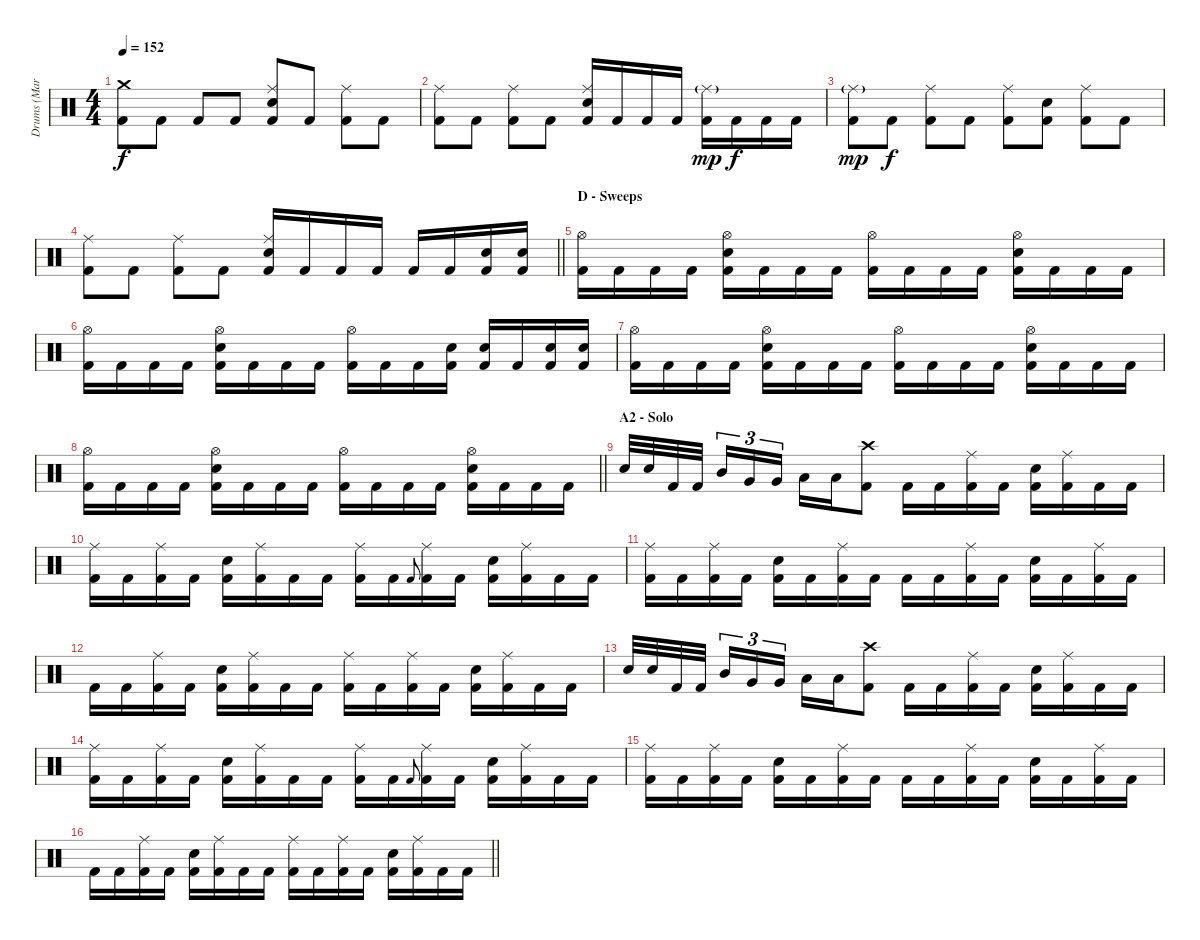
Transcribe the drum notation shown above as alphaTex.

\track ("Drums (Mark Arrington)" "Drums (Mar") {instrument percussion}
\staff {score}
\articulation defaults
\ts (4 4)
\tempo 152
\clef neutral
\ks aminor
("Crash medium (hit)" "Kick (hit) 2").8{dy f} "Kick (hit) 2".8 "Kick (hit) 2".8 "Kick (hit) 2".8 ("Ride (middle)" "Electric Snare (hit)" "Kick (hit) 2").8 "Kick (hit) 2".8 ("Ride (middle)" "Kick (hit) 2").8 "Kick (hit) 2".8 |
("Ride (middle)" "Kick (hit) 2").8 "Kick (hit) 2".8 ("Ride (middle)" "Kick (hit) 2").8 "Kick (hit) 2".8 ("Ride (middle)" "Electric Snare (hit)" "Kick (hit) 2").16 "Kick (hit) 2".16 "Kick (hit) 2".16 "Kick (hit) 2".16 ("Ride (middle)"{g} "Kick (hit) 2").16{dy mp} "Kick (hit) 2".16{dy f} "Kick (hit) 2".16 "Kick (hit) 2".16 |
("Ride (middle)"{g} "Kick (hit) 2").8{dy mp} "Kick (hit) 2".8{dy f} ("Ride (middle)" "Kick (hit) 2").8 "Kick (hit) 2".8 ("Ride (middle)" "Kick (hit) 2").8 ("Electric Snare (hit)" "Kick (hit) 2").8 ("Ride (middle)" "Kick (hit) 2").8 "Kick (hit) 2".8 |
\barLineRight lightlight
("Ride (middle)" "Kick (hit) 2").8 "Kick (hit) 2".8 ("Ride (middle)" "Kick (hit) 2").8 "Kick (hit) 2".8 ("Ride (middle)" "Electric Snare (hit)" "Kick (hit) 2").16 "Kick (hit) 2".16 "Kick (hit) 2".16 "Kick (hit) 2".16 "Kick (hit) 2".16 "Kick (hit) 2".16 ("Electric Snare (hit)" "Kick (hit) 2").16 ("Electric Snare (hit)" "Kick (hit) 2").16 |
\section ("" "D - Sweeps")
("Hi-Hat (open)" "Kick (hit) 2").16 "Kick (hit) 2".16 "Kick (hit) 2".16 "Kick (hit) 2".16 ("Hi-Hat (open)" "Electric Snare (hit)" "Kick (hit) 2").16 "Kick (hit) 2".16 "Kick (hit) 2".16 "Kick (hit) 2".16 ("Hi-Hat (open)" "Kick (hit) 2").16 "Kick (hit) 2".16 "Kick (hit) 2".16 "Kick (hit) 2".16 ("Hi-Hat (open)" "Electric Snare (hit)" "Kick (hit) 2").16 "Kick (hit) 2".16 "Kick (hit) 2".16 "Kick (hit) 2".16 |
("Hi-Hat (open)" "Kick (hit) 2").16 "Kick (hit) 2".16 "Kick (hit) 2".16 "Kick (hit) 2".16 ("Hi-Hat (open)" "Electric Snare (hit)" "Kick (hit) 2").16 "Kick (hit) 2".16 "Kick (hit) 2".16 "Kick (hit) 2".16 ("Hi-Hat (open)" "Kick (hit) 2").16 "Kick (hit) 2".16 "Kick (hit) 2".16 ("Electric Snare (hit)" "Kick (hit) 2").16 ("Electric Snare (hit)" "Kick (hit) 2").16 "Kick (hit) 2".16 ("Electric Snare (hit)" "Kick (hit) 2").16 ("Electric Snare (hit)" "Kick (hit) 2").16 |
("Hi-Hat (open)" "Kick (hit) 2").16 "Kick (hit) 2".16 "Kick (hit) 2".16 "Kick (hit) 2".16 ("Hi-Hat (open)" "Electric Snare (hit)" "Kick (hit) 2").16 "Kick (hit) 2".16 "Kick (hit) 2".16 "Kick (hit) 2".16 ("Hi-Hat (open)" "Kick (hit) 2").16 "Kick (hit) 2".16 "Kick (hit) 2".16 "Kick (hit) 2".16 ("Hi-Hat (open)" "Electric Snare (hit)" "Kick (hit) 2").16 "Kick (hit) 2".16 "Kick (hit) 2".16 "Kick (hit) 2".16 |
\barLineRight lightlight
("Hi-Hat (open)" "Kick (hit) 2").16 "Kick (hit) 2".16 "Kick (hit) 2".16 "Kick (hit) 2".16 ("Hi-Hat (open)" "Electric Snare (hit)" "Kick (hit) 2").16 "Kick (hit) 2".16 "Kick (hit) 2".16 "Kick (hit) 2".16 ("Hi-Hat (open)" "Kick (hit) 2").16 "Kick (hit) 2".16 "Kick (hit) 2".16 "Kick (hit) 2".16 ("Hi-Hat (open)" "Electric Snare (hit)" "Kick (hit) 2").16 "Kick (hit) 2".16 "Kick (hit) 2".16 "Kick (hit) 2".16 |
\section ("" "A2 - Solo")
"Electric Snare (hit)".32 "Electric Snare (hit)".32 "Kick (hit) 2".32 "Kick (hit) 2".32{beam splitsecondary} "Mid Tom (hit)".16{tu (3 2)} "Very Low Tom (hit)".16{tu (3 2)} "Very Low Tom (hit)".16{tu (3 2)} "Low Floor Tom (hit)".16 "Low Floor Tom (hit)".16 ("Crash high (hit)" "Kick (hit) 2").8 "Kick (hit) 2".16 "Kick (hit) 2".16 ("Ride (middle)" "Kick (hit) 2").16 "Kick (hit) 2".16 ("Electric Snare (hit)" "Kick (hit) 2").16 ("Ride (middle)" "Kick (hit) 2").16 "Kick (hit) 2".16 "Kick (hit) 2".16 |
("Ride (middle)" "Kick (hit) 2").16 "Kick (hit) 2".16 ("Ride (middle)" "Kick (hit) 2").16 "Kick (hit) 2".16 ("Electric Snare (hit)" "Kick (hit) 2").16 ("Ride (middle)" "Kick (hit) 2").16 "Kick (hit) 2".16 "Kick (hit) 2".16 ("Ride (middle)" "Kick (hit) 2").16 "Kick (hit) 2".16 "Kick (hit) 2".8{gr onbeat} ("Ride (middle)" "Kick (hit) 2").16 "Kick (hit) 2".16 ("Electric Snare (hit)" "Kick (hit) 2").16 ("Ride (middle)" "Kick (hit) 2").16 "Kick (hit) 2".16 "Kick (hit) 2".16 |
("Ride (middle)" "Kick (hit) 2").16 "Kick (hit) 2".16 ("Ride (middle)" "Kick (hit) 2").16 "Kick (hit) 2".16 ("Electric Snare (hit)" "Kick (hit) 2").16 "Kick (hit) 2".16 ("Ride (middle)" "Kick (hit) 2").16 "Kick (hit) 2".16 "Kick (hit) 2".16 "Kick (hit) 2".16 ("Ride (middle)" "Kick (hit) 2").16 "Kick (hit) 2".16 ("Electric Snare (hit)" "Kick (hit) 2").16 "Kick (hit) 2".16 ("Ride (middle)" "Kick (hit) 2").16 "Kick (hit) 2".16 |
"Kick (hit) 2".16 "Kick (hit) 2".16 ("Ride (middle)" "Kick (hit) 2").16 "Kick (hit) 2".16 ("Electric Snare (hit)" "Kick (hit) 2").16 ("Ride (middle)" "Kick (hit) 2").16 "Kick (hit) 2".16 "Kick (hit) 2".16 ("Ride (middle)" "Kick (hit) 2").16 "Kick (hit) 2".16 ("Ride (middle)" "Kick (hit) 2").16 "Kick (hit) 2".16 ("Electric Snare (hit)" "Kick (hit) 2").16 ("Ride (middle)" "Kick (hit) 2").16 "Kick (hit) 2".16 "Kick (hit) 2".16 |
"Electric Snare (hit)".32 "Electric Snare (hit)".32 "Kick (hit) 2".32 "Kick (hit) 2".32{beam splitsecondary} "Mid Tom (hit)".16{tu (3 2)} "Very Low Tom (hit)".16{tu (3 2)} "Very Low Tom (hit)".16{tu (3 2)} "Low Floor Tom (hit)".16 "Low Floor Tom (hit)".16 ("Crash high (hit)" "Kick (hit) 2").8 "Kick (hit) 2".16 "Kick (hit) 2".16 ("Ride (middle)" "Kick (hit) 2").16 "Kick (hit) 2".16 ("Electric Snare (hit)" "Kick (hit) 2").16 ("Ride (middle)" "Kick (hit) 2").16 "Kick (hit) 2".16 "Kick (hit) 2".16 |
("Ride (middle)" "Kick (hit) 2").16 "Kick (hit) 2".16 ("Ride (middle)" "Kick (hit) 2").16 "Kick (hit) 2".16 ("Electric Snare (hit)" "Kick (hit) 2").16 ("Ride (middle)" "Kick (hit) 2").16 "Kick (hit) 2".16 "Kick (hit) 2".16 ("Ride (middle)" "Kick (hit) 2").16 "Kick (hit) 2".16 "Kick (hit) 2".8{gr onbeat} ("Ride (middle)" "Kick (hit) 2").16 "Kick (hit) 2".16 ("Electric Snare (hit)" "Kick (hit) 2").16 ("Ride (middle)" "Kick (hit) 2").16 "Kick (hit) 2".16 "Kick (hit) 2".16 |
("Ride (middle)" "Kick (hit) 2").16 "Kick (hit) 2".16 ("Ride (middle)" "Kick (hit) 2").16 "Kick (hit) 2".16 ("Electric Snare (hit)" "Kick (hit) 2").16 "Kick (hit) 2".16 ("Ride (middle)" "Kick (hit) 2").16 "Kick (hit) 2".16 "Kick (hit) 2".16 "Kick (hit) 2".16 ("Ride (middle)" "Kick (hit) 2").16 "Kick (hit) 2".16 ("Electric Snare (hit)" "Kick (hit) 2").16 "Kick (hit) 2".16 ("Ride (middle)" "Kick (hit) 2").16 "Kick (hit) 2".16 |
\barLineRight lightlight "Kick (hit) 2".16 "Kick (hit) 2".16
("Ride (middle)" "Kick (hit) 2").16 "Kick (hit) 2".16 ("Electric Snare (hit)" "Kick (hit) 2").16 ("Ride (middle)" "Kick (hit) 2").16 "Kick (hit) 2".16 "Kick (hit) 2".16 ("Ride (middle)" "Kick (hit) 2").16 "Kick (hit) 2".16 ("Ride (middle)" "Kick (hit) 2").16 "Kick (hit) 2".16 ("Electric Snare (hit)" "Kick (hit) 2").16 ("Ride (middle)" "Kick (hit) 2").16 "Kick (hit) 2".16 "Kick (hit) 2".16
